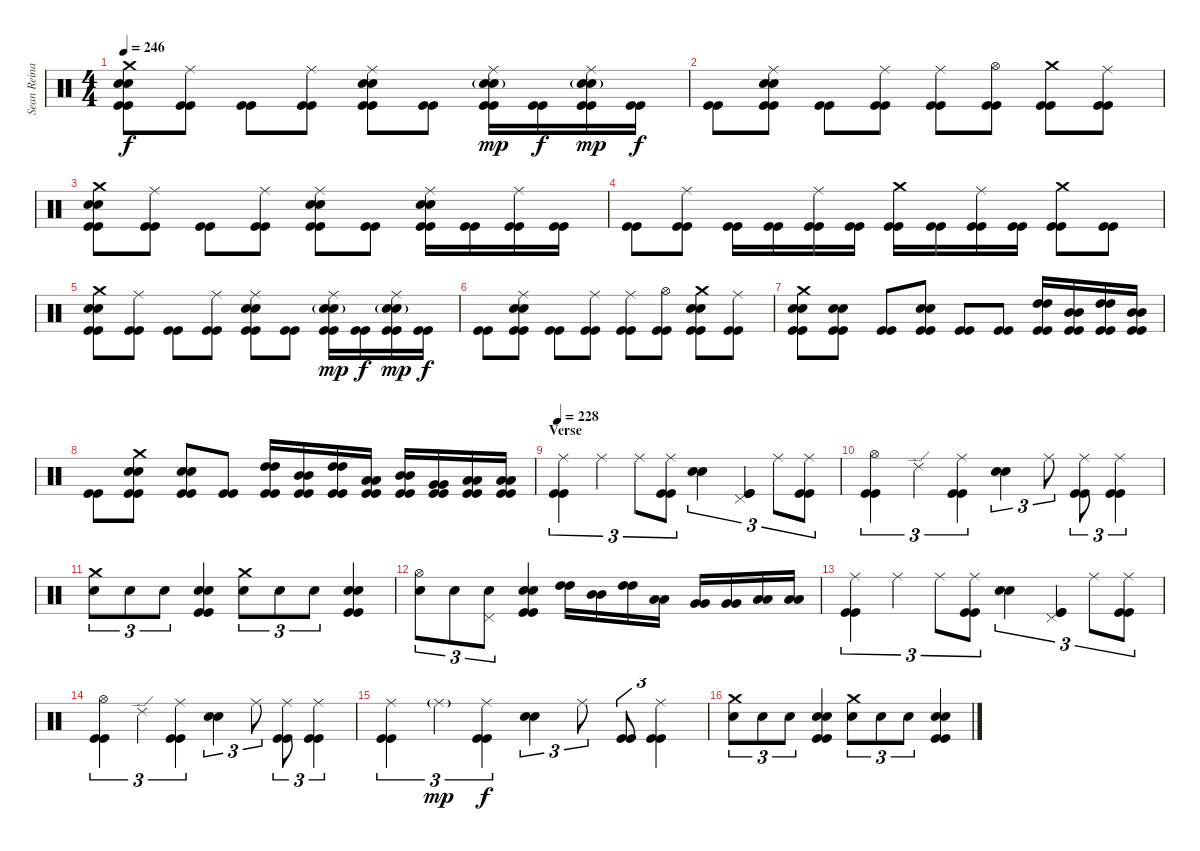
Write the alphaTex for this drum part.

\track ("Sean Reinart" "Sean Reina") {instrument percussion}
\staff {score}
\articulation defaults
\ts (4 4)
\tempo 246
\clef neutral
\ks c
("Crash medium (hit)" "Snare (hit) 2" "Electric Snare (hit)" "Kick (hit)" "Kick (hit)").8{dy f} ("Ride (middle)" "Kick (hit)" "Kick (hit)").8 ("Kick (hit)" "Kick (hit)").8 ("Ride (middle)" "Kick (hit)" "Kick (hit)").8 ("Ride (middle)" "Snare (hit) 2" "Electric Snare (hit)" "Kick (hit)" "Kick (hit)").8 ("Kick (hit)" "Kick (hit)").8 ("Ride (middle)" "Snare (hit) 2"{g} "Electric Snare (hit)"{g} "Kick (hit)" "Kick (hit)").16{dy mp} ("Kick (hit)" "Kick (hit)").16{dy f} ("Ride (middle)" "Snare (hit) 2"{g} "Electric Snare (hit)"{g} "Kick (hit)" "Kick (hit)").16{dy mp} ("Kick (hit)" "Kick (hit)").16{dy f} |
("Kick (hit)" "Kick (hit)").8 ("Ride (middle)" "Electric Snare (hit)" "Snare (hit) 2" "Kick (hit)" "Kick (hit)").8 ("Kick (hit)" "Kick (hit)").8 ("Ride (middle)" "Kick (hit)" "Kick (hit)").8 ("Ride (middle)" "Kick (hit)" "Kick (hit)").8 ("Hi-Hat (open)" "Kick (hit)" "Kick (hit)").8 ("Crash medium (hit)" "Kick (hit)" "Kick (hit)").8 ("Ride (middle)" "Kick (hit)" "Kick (hit)").8 |
("Crash medium (hit)" "Snare (hit) 2" "Electric Snare (hit)" "Kick (hit)" "Kick (hit)").8 ("Ride (middle)" "Kick (hit)" "Kick (hit)").8 ("Kick (hit)" "Kick (hit)").8 ("Ride (middle)" "Kick (hit)" "Kick (hit)").8 ("Ride (middle)" "Snare (hit) 2" "Electric Snare (hit)" "Kick (hit)" "Kick (hit)").8 ("Kick (hit)" "Kick (hit)").8 ("Ride (middle)" "Snare (hit) 2" "Electric Snare (hit)" "Kick (hit)" "Kick (hit)").16 ("Kick (hit)" "Kick (hit)").16 ("Ride (middle)" "Kick (hit)" "Kick (hit)").16 ("Kick (hit)" "Kick (hit)").16 |
("Kick (hit)" "Kick (hit)").8 ("Ride (middle)" "Kick (hit)" "Kick (hit)").8 ("Kick (hit)" "Kick (hit)").16 ("Kick (hit)" "Kick (hit)").16 ("Ride (middle)" "Kick (hit)" "Kick (hit)").16 ("Kick (hit)" "Kick (hit)").16 ("Crash medium (hit)" "Kick (hit)" "Kick (hit)").16 ("Kick (hit)" "Kick (hit)").16 ("Ride (middle)" "Kick (hit)" "Kick (hit)").16 ("Kick (hit)" "Kick (hit)").16 ("Crash medium (hit)" "Kick (hit)" "Kick (hit)").8 ("Kick (hit)" "Kick (hit)").8 |
("Crash medium (hit)" "Snare (hit) 2" "Electric Snare (hit)" "Kick (hit)" "Kick (hit)").8 ("Ride (middle)" "Kick (hit)" "Kick (hit)").8 ("Kick (hit)" "Kick (hit)").8 ("Ride (middle)" "Kick (hit)" "Kick (hit)").8 ("Ride (middle)" "Snare (hit) 2" "Electric Snare (hit)" "Kick (hit)" "Kick (hit)").8 ("Kick (hit)" "Kick (hit)").8 ("Ride (middle)" "Snare (hit) 2"{g} "Electric Snare (hit)"{g} "Kick (hit)" "Kick (hit)").16{dy mp} ("Kick (hit)" "Kick (hit)").16{dy f} ("Ride (middle)" "Snare (hit) 2"{g} "Electric Snare (hit)"{g} "Kick (hit)" "Kick (hit)").16{dy mp} ("Kick (hit)" "Kick (hit)").16{dy f} |
("Kick (hit)" "Kick (hit)").8 ("Ride (middle)" "Electric Snare (hit)" "Snare (hit) 2" "Kick (hit)" "Kick (hit)").8 ("Kick (hit)" "Kick (hit)").8 ("Ride (middle)" "Kick (hit)" "Kick (hit)").8 ("Ride (middle)" "Kick (hit)" "Kick (hit)").8 ("Hi-Hat (open)" "Kick (hit)" "Kick (hit)").8 ("Crash medium (hit)" "Snare (hit) 2" "Electric Snare (hit)" "Kick (hit)" "Kick (hit)").8 ("Ride (middle)" "Kick (hit)" "Kick (hit)").8 |
("Crash medium (hit)" "Snare (hit) 2" "Electric Snare (hit)" "Kick (hit)" "Kick (hit)").8 ("Electric Snare (hit)" "Snare (hit) 2" "Kick (hit)" "Kick (hit)").8 ("Kick (hit)" "Kick (hit)").8 ("Electric Snare (hit)" "Snare (hit) 2" "Kick (hit)" "Kick (hit)").8 ("Kick (hit)" "Kick (hit)").8 ("Kick (hit)" "Kick (hit)").8 ("High Tom (hit)" "High Tom (hit)" "Kick (hit)" "Kick (hit)").16 ("Mid Tom (hit)" "Mid Tom (hit)" "Kick (hit)" "Kick (hit)").16 ("High Tom (hit)" "High Tom (hit)" "Kick (hit)" "Kick (hit)").16 ("Mid Tom (hit)" "Mid Tom (hit)" "Kick (hit)" "Kick (hit)").16 |
("Kick (hit)" "Kick (hit)").8 ("Crash medium (hit)" "Snare (hit) 2" "Electric Snare (hit)" "Kick (hit)" "Kick (hit)").8 ("Electric Snare (hit)" "Snare (hit) 2" "Kick (hit)" "Kick (hit)").8 ("Kick (hit)" "Kick (hit)").8 ("High Tom (hit)" "High Tom (hit)" "Kick (hit)" "Kick (hit)").16 ("Mid Tom (hit)" "Mid Tom (hit)" "Kick (hit)" "Kick (hit)").16 ("High Tom (hit)" "High Tom (hit)" "Kick (hit)" "Kick (hit)").16 ("Low Tom (hit)" "Low Tom (hit)" "Kick (hit)" "Kick (hit)").16 ("Mid Tom (hit)" "Mid Tom (hit)" "Kick (hit)" "Kick (hit)").16 ("Very Low Tom (hit)" "Very Low Tom (hit)" "Kick (hit)" "Kick (hit)").16 ("Low Tom (hit)" "Low Tom (hit)" "Kick (hit)" "Kick (hit)").16 ("Low Floor Tom (hit)" "Low Floor Tom (hit)" "Kick (hit)" "Kick (hit)").16 |
\section ("" "Verse")
\tempo 228
("Ride (middle)" "Kick (hit)" "Kick (hit)").4{tu (3 2)} "Ride (middle)".4{tu (3 2)} "Ride (middle)".8{tu (3 2)} ("Ride (middle)" "Kick (hit)" "Kick (hit)").8{tu (3 2)} ("Snare (hit) 2" "Electric Snare (hit)").4{tu (3 2)} ("Pedal Hi-Hat (hit)" "Kick (hit)" "Kick (hit)").4{tu (3 2)} "Ride (middle)".8{tu (3 2)} ("Ride (middle)" "Kick (hit)" "Kick (hit)").8{tu (3 2)} |
("Hi-Hat (open)" "Kick (hit)" "Kick (hit)").4{tu (3 2)} "Ride (edge) 2".4{tu (3 2)} ("Ride (middle)" "Kick (hit)" "Kick (hit)").4{tu (3 2)} ("Snare (hit) 2" "Electric Snare (hit)").4{tu (3 2)} "Ride (middle)".8{tu (3 2)} ("Ride (middle)" "Kick (hit)" "Kick (hit)").8{tu (3 2)} ("Ride (middle)" "Kick (hit)" "Kick (hit)").4{tu (3 2)} |
("Crash medium (hit)" "Snare (hit) 2").8{tu (3 2)} "Snare (hit) 2".8{tu (3 2)} "Snare (hit) 2".8{tu (3 2)} ("Snare (hit) 2" "Electric Snare (hit)" "Kick (hit)" "Kick (hit)").4 ("Crash medium (hit)" "Snare (hit) 2").8{tu (3 2)} "Snare (hit) 2".8{tu (3 2)} "Snare (hit) 2".8{tu (3 2)} ("Snare (hit) 2" "Electric Snare (hit)" "Kick (hit)" "Kick (hit)").4 |
("Hi-Hat (open)" "Snare (hit) 2").8{tu (3 2)} "Snare (hit) 2".8{tu (3 2)} ("Pedal Hi-Hat (hit)" "Snare (hit) 2").8{tu (3 2)} ("Snare (hit) 2" "Electric Snare (hit)" "Kick (hit)" "Kick (hit)").4 ("High Tom (hit)" "High Tom (hit)").16 ("Mid Tom (hit)" "Mid Tom (hit)").16 ("High Tom (hit)" "High Tom (hit)").16 ("Low Tom (hit)" "Low Tom (hit)").16 ("Very Low Tom (hit)" "Very Low Tom (hit)").16 ("Very Low Tom (hit)" "Very Low Tom (hit)").16 ("Low Floor Tom (hit)" "Low Floor Tom (hit)").16 ("Low Floor Tom (hit)" "Low Floor Tom (hit)").16 |
("Ride (middle)" "Kick (hit)" "Kick (hit)").4{tu (3 2)} "Ride (middle)".4{tu (3 2)} "Ride (middle)".8{tu (3 2)} ("Ride (middle)" "Kick (hit)" "Kick (hit)").8{tu (3 2)} ("Snare (hit) 2" "Electric Snare (hit)").4{tu (3 2)} ("Pedal Hi-Hat (hit)" "Kick (hit)" "Kick (hit)").4{tu (3 2)} "Ride (middle)".8{tu (3 2)} ("Ride (middle)" "Kick (hit)" "Kick (hit)").8{tu (3 2)} |
("Hi-Hat (open)" "Kick (hit)" "Kick (hit)").4{tu (3 2)} "Ride (edge) 2".4{tu (3 2)} ("Ride (middle)" "Kick (hit)" "Kick (hit)").4{tu (3 2)} ("Snare (hit) 2" "Electric Snare (hit)").4{tu (3 2)} "Ride (middle)".8{tu (3 2)} ("Ride (middle)" "Kick (hit)" "Kick (hit)").8{tu (3 2)} ("Ride (middle)" "Kick (hit)" "Kick (hit)").4{tu (3 2)} |
("Ride (middle)" "Kick (hit)" "Kick (hit)").4{tu (3 2)} "Ride (middle)"{g}.4{tu (3 2) dy mp} ("Ride (middle)" "Kick (hit)" "Kick (hit)").4{tu (3 2) dy f} ("Snare (hit) 2" "Electric Snare (hit)").4{tu (3 2)} "Ride (middle)".8{tu (3 2)} ("Kick (hit)" "Kick (hit)").8{tu (3 2)} ("Ride (middle)" "Kick (hit)" "Kick (hit)").4{tu (3 2)} |
("Crash medium (hit)" "Snare (hit) 2").8{tu (3 2)} "Snare (hit) 2".8{tu (3 2)} "Snare (hit) 2".8{tu (3 2)} ("Snare (hit) 2" "Electric Snare (hit)" "Kick (hit)" "Kick (hit)").4 ("Crash medium (hit)" "Snare (hit) 2").8{tu (3 2)} "Snare (hit) 2".8{tu (3 2)} "Snare (hit) 2".8{tu (3 2)} ("Snare (hit) 2" "Electric Snare (hit)" "Kick (hit)" "Kick (hit)").4
